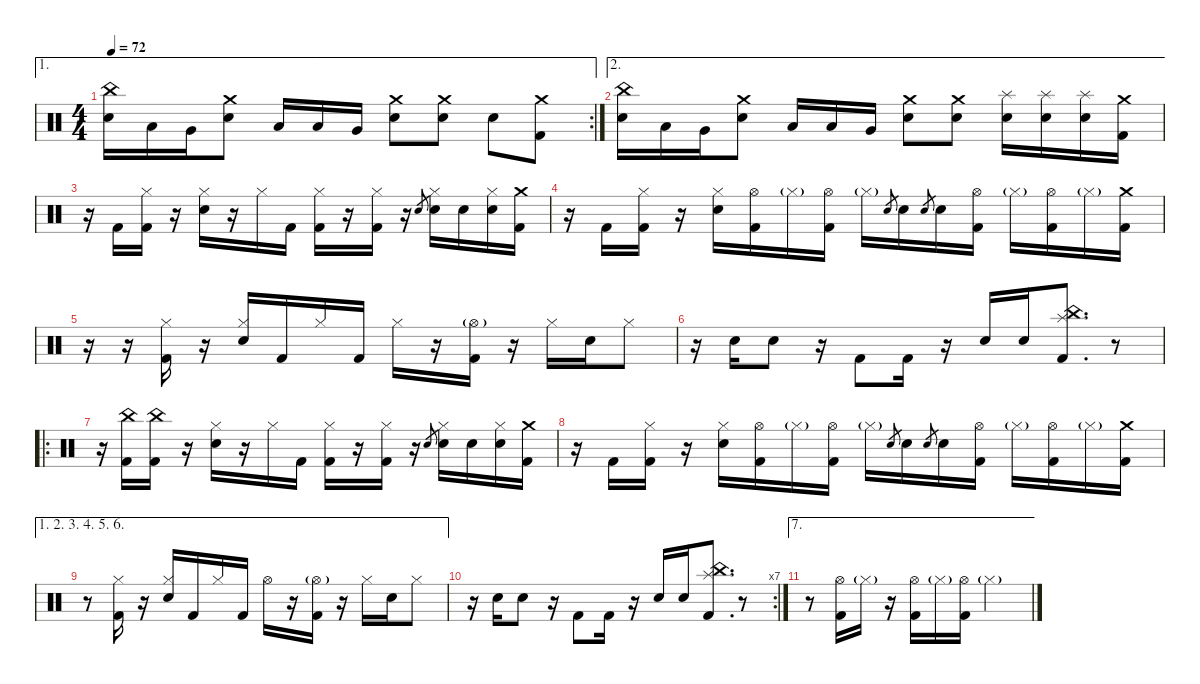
\defaultSystemsLayout 4
\hideDynamics
\bracketExtendMode nobrackets
\singleTrackTrackNamePolicy hidden
\multiTrackTrackNamePolicy hidden
\firstSystemTrackNameMode fullname
\firstSystemTrackNameOrientation horizontal
\otherSystemsTrackNameOrientation horizontal
\track ("Drums" "drm.") {instrument percussion}
\staff {score}
\articulation defaults
\ae 1
\rc 2
\ts (4 4)
\tempo 72
\clef neutral
\ks c
("China (hit)" "Snare (hit) 2").16{dy f beam Down} "Low Tom (hit)".16{beam Down} "Very Low Tom (hit)".16{beam Down} ("Crash medium (hit)" "Snare (hit) 2").8{beam Down} "Low Tom (hit)".16{beam Up} "Low Tom (hit)".16{beam Up} "Very Low Tom (hit)".16{beam Up} ("Crash medium (hit)" "Snare (hit) 2").8{beam Down} ("Crash medium (hit)" "Snare (hit) 2").8{beam Down} "Snare (hit) 2".8{beam Down} ("Crash medium (hit)" "Kick (hit) 2").8{beam Down} |
\ae 2
("China (hit)" "Snare (hit) 2").16{beam Down} "Low Tom (hit)".16{beam Down} "Very Low Tom (hit)".16{beam Down} ("Crash medium (hit)" "Snare (hit) 2").8{beam Down} "Low Tom (hit)".16{beam Up} "Low Tom (hit)".16{beam Up} "Very Low Tom (hit)".16{beam Up} ("Crash medium (hit)" "Snare (hit) 2").8{beam Down} ("Crash medium (hit)" "Snare (hit) 2").8{beam Down} ("Splash (hit)" "Snare (hit) 2").16{beam Down} ("Splash (hit)" "Snare (hit) 2").16{beam Down} ("Splash (hit)" "Snare (hit) 2").16{beam Down} ("Crash medium (hit)" "Kick (hit) 2").16{beam Down} |
r.16{beam Down} "Kick (hit) 2".16{beam Down} ("Hi-Hat (closed)" "Kick (hit) 2").16{beam Down} r.16{beam Down} ("Hi-Hat (closed)" "Snare (hit) 2").16{beam Down} r.16{beam Down} "Hi-Hat (closed)".16{beam Down} "Kick (hit) 2".16{beam Down} ("Hi-Hat (closed)" "Kick (hit) 2").16{beam Down} r.16{beam Down} ("Hi-Hat (closed)" "Kick (hit) 2").16{beam Down} r.16{beam Down} "Electric Snare (hit)".8{gr dy pp beam Up} ("Hi-Hat (closed)" "Snare (hit) 2").16{dy f beam Down} "Snare (hit) 2".16{beam Down} ("Hi-Hat (closed)" "Snare (hit) 2").16{beam Down} ("Crash medium (hit)" "Kick (hit) 2").16{beam Down} |
r.16{beam Down} "Kick (hit) 2".16{beam Down} ("Hi-Hat (closed)" "Kick (hit) 2").16{beam Down} r.16{beam Down} ("Hi-Hat (closed)" "Snare (hit) 2").16{beam Down} ("Hi-Hat (open)" "Kick (hit) 2").16{beam Down} "Hi-Hat (closed)"{g}.16{dy mf beam Down} ("Hi-Hat (open)" "Kick (hit) 2").16{dy f beam Down} "Hi-Hat (closed)"{g}.16{dy mf beam Down} "Electric Snare (hit)".8{gr dy p beam Up} "Snare (hit) 2".16{dy f beam Down} "Electric Snare (hit)".8{gr dy pp beam Up} "Snare (hit) 2".16{dy f beam Down} ("Hi-Hat (open)" "Kick (hit) 2").16{beam Down} "Hi-Hat (closed)"{g}.16{dy mf beam Down} ("Hi-Hat (open)" "Kick (hit) 2").16{dy f beam Down} "Hi-Hat (closed)"{g}.16{dy mf beam Down} ("Crash medium (hit)" "Kick (hit) 2").16{dy f beam Down} |
r.16{beam Down} r.16{beam Down} ("Hi-Hat (closed)" "Kick (hit) 2").16{beam Down} r.16{beam Down} ("Hi-Hat (closed)" "Snare (hit) 2").16{beam Up} "Kick (hit) 2".16{beam Up} "Hi-Hat (closed)".16{beam Up} "Kick (hit) 2".16{beam Up} "Hi-Hat (closed)".16{beam Down} r.16{beam Down} ("Hi-Hat (open)"{g} "Kick (hit) 2").16{beam Down} r.16{beam Down} "Hi-Hat (closed)".16{beam Down} "Snare (hit) 2".16{beam Down} "Hi-Hat (closed)".8{beam Down} |
r.16{beam Down} "Snare (hit) 2".16{beam Down} "Snare (hit) 2".8{beam Down} r.16{beam Down} "Kick (hit) 2".8{beam Up} "Kick (hit) 2".16{beam Up} r.16{beam Up} "Snare (hit) 2".16{beam Down} "Snare (hit) 2".16{beam Down} ("China (hit)" "Splash (hit)" "Kick (hit) 2").8{d beam Down} r.8{beam Down} |
\ro
r.16{beam Down} ("China (hit)" "Kick (hit) 2").16{beam Down} ("China (hit)" "Kick (hit) 2").16{beam Down} r.16{beam Down} ("Hi-Hat (closed)" "Snare (hit) 2").16{beam Down} r.16{beam Down} "Hi-Hat (closed)".16{beam Down} "Kick (hit) 2".16{beam Down} ("Hi-Hat (closed)" "Kick (hit) 2").16{beam Down} r.16{beam Down} ("Hi-Hat (closed)" "Kick (hit) 2").16{beam Down} r.16{beam Down} "Electric Snare (hit)".8{gr dy pp beam Up} ("Hi-Hat (closed)" "Snare (hit) 2").16{dy f beam Down} "Snare (hit) 2".16{beam Down} ("Hi-Hat (closed)" "Snare (hit) 2").16{beam Down} ("Crash medium (hit)" "Kick (hit) 2").16{beam Down} |
r.16{beam Down} "Kick (hit) 2".16{beam Down} ("Hi-Hat (closed)" "Kick (hit) 2").16{beam Down} r.16{beam Down} ("Hi-Hat (closed)" "Snare (hit) 2").16{beam Down} ("Hi-Hat (open)" "Kick (hit) 2").16{beam Down} "Hi-Hat (closed)"{g}.16{dy mf beam Down} ("Hi-Hat (open)" "Kick (hit) 2").16{dy f beam Down} "Hi-Hat (closed)"{g}.16{dy mf beam Down} "Electric Snare (hit)".8{gr dy p beam Up} "Snare (hit) 2".16{dy f beam Down} "Electric Snare (hit)".8{gr dy pp beam Up} "Snare (hit) 2".16{dy f beam Down} ("Hi-Hat (open)" "Kick (hit) 2").16{beam Down} "Hi-Hat (closed)"{g}.16{dy mf beam Down} ("Hi-Hat (open)" "Kick (hit) 2").16{dy f beam Down} "Hi-Hat (closed)"{g}.16{dy mf beam Down} ("Crash medium (hit)" "Kick (hit) 2").16{dy f beam Down} |
\ae (1 2 3 4 5 6)
r.8{beam Down} ("Hi-Hat (closed)" "Kick (hit) 2").16{beam Down} r.16{beam Down} ("Hi-Hat (closed)" "Snare (hit) 2").16{beam Up} "Kick (hit) 2".16{beam Up} "Hi-Hat (closed)".16{beam Up} "Kick (hit) 2".16{beam Up} "Hi-Hat (open)".16{beam Down} r.16{beam Down} ("Hi-Hat (open)"{g} "Kick (hit) 2").16{beam Down} r.16{beam Down} "Hi-Hat (closed)".16{beam Down} "Snare (hit) 2".16{beam Down} "Hi-Hat (closed)".8{beam Down} |
\rc 7
r.16{beam Down} "Snare (hit) 2".16{beam Down} "Snare (hit) 2".8{beam Down} r.16{beam Down} "Kick (hit) 2".8{beam Up} "Kick (hit) 2".16{beam Up} r.16{beam Up} "Snare (hit) 2".16{beam Down} "Snare (hit) 2".16{beam Down} ("China (hit)" "Splash (hit)" "Kick (hit) 2").8{d beam Down} r.8{beam Down} |
\ae 7
r.8{beam Down} ("Hi-Hat (open)" "Kick (hit) 2").16{beam Down} "Hi-Hat (closed)"{g}.16{dy mf beam Down} r.16{beam Down} ("Hi-Hat (open)" "Kick (hit) 2").16{dy f beam Down} "Hi-Hat (closed)"{g}.16{dy mf beam Down} ("Hi-Hat (open)" "Kick (hit) 2").16{dy f beam Down} "Hi-Hat (closed)"{g}.2{dy mf beam Down}
